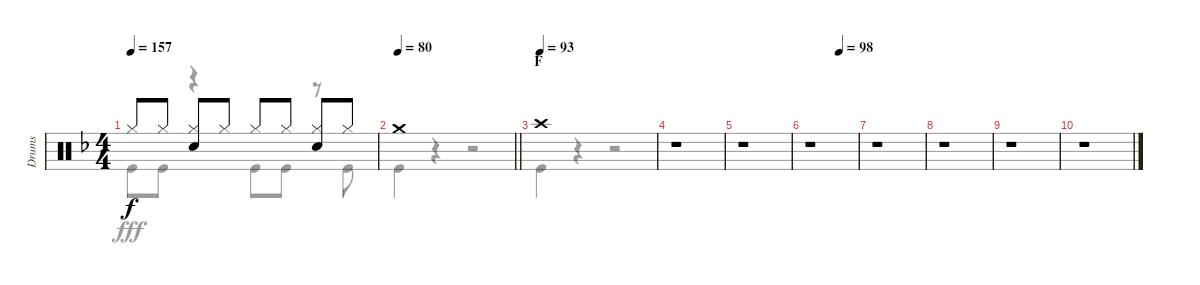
\track ("Drums" "Drums") {instrument percussion}
\staff {score}
\articulation defaults
\voice
\ts (4 4)
\tempo 157
\clef neutral
\ks f "Hi-Hat (closed)".8{dy f} "Hi-Hat (closed)".8
("Hi-Hat (closed)" "Snare (hit) 2").8 "Hi-Hat (closed)".8 "Hi-Hat (closed)".8 "Hi-Hat (closed)".8 ("Hi-Hat (closed)" "Snare (hit) 2").8 "Hi-Hat (closed)".8 |
\tempo 80
\barLineRight lightlight "Crash medium (hit)".1
|
\section ("" "F")
\tempo (93)
"Crash high (hit)".1 |
r.1 |
r.1 |
\tempo (98 0.625)
r.1 |
r.1 |
r.1 |
r.1 |
r.1
\voice
\clef neutral
\ottava regular
\simile none
\ks f "Kick (hit)".8{dy fff} "Kick (hit)".8
r.4 "Kick (hit)".8 "Kick (hit)".8 r.8 "Kick (hit)".8 |
\barLineRight lightlight "Kick (hit)".4
r.4 r.2 |
"Kick (hit)".4 r.4 r.2 |
r.1 |
r.1 |
r.1 |
r.1 |
r.1 |
r.1 |
r.1
